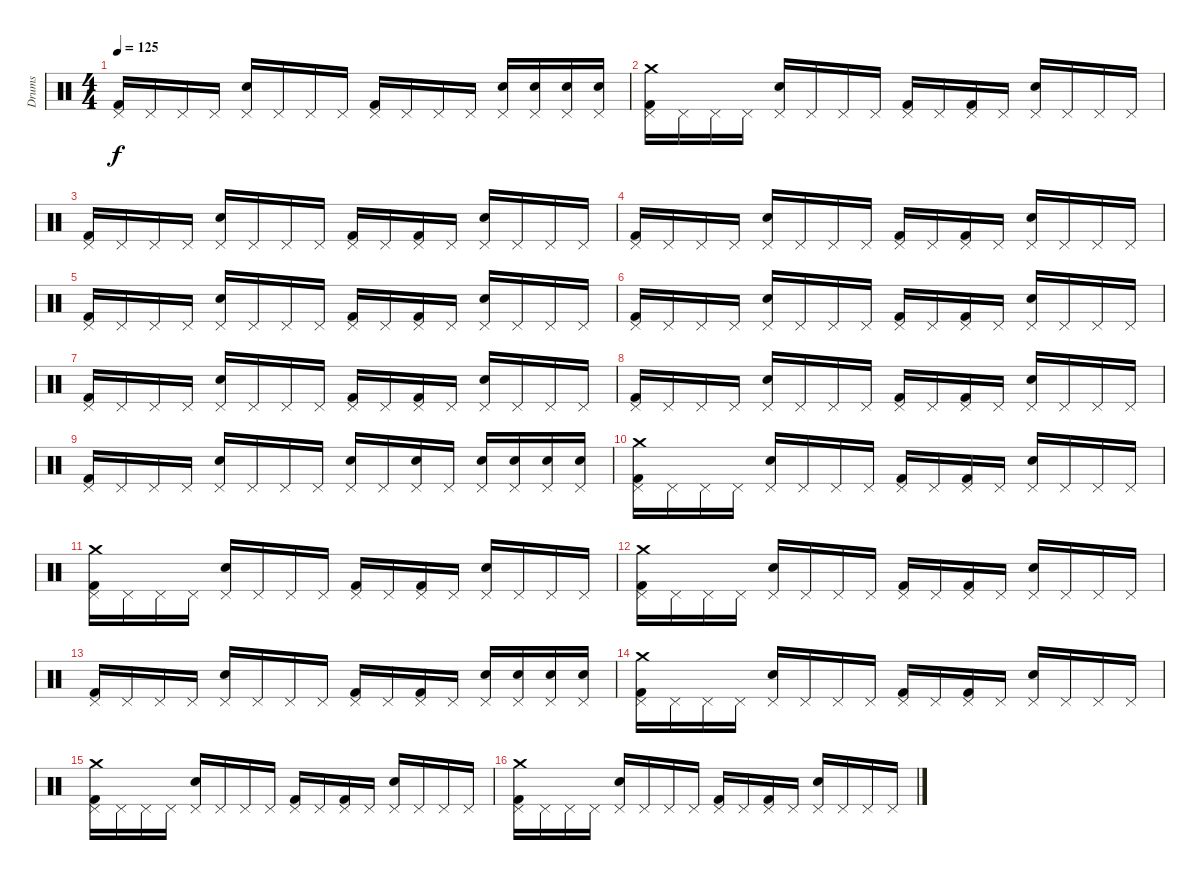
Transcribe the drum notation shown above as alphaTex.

\track ("Drums" "Drums") {instrument percussion}
\staff {score}
\articulation defaults
\ts (4 4)
\tempo 125
\clef neutral
\ks c
("Pedal Hi-Hat (hit)" "Kick (hit) 2").16{dy f} "Pedal Hi-Hat (hit)".16 "Pedal Hi-Hat (hit)".16 "Pedal Hi-Hat (hit)".16 ("Pedal Hi-Hat (hit)" "Snare (hit) 2").16 "Pedal Hi-Hat (hit)".16 "Pedal Hi-Hat (hit)".16 "Pedal Hi-Hat (hit)".16 ("Kick (hit) 2" "Pedal Hi-Hat (hit)").16 "Pedal Hi-Hat (hit)".16 "Pedal Hi-Hat (hit)".16 "Pedal Hi-Hat (hit)".16 ("Pedal Hi-Hat (hit)" "Snare (hit) 2").16 ("Pedal Hi-Hat (hit)" "Snare (hit) 2").16 ("Pedal Hi-Hat (hit)" "Snare (hit) 2").16 ("Pedal Hi-Hat (hit)" "Snare (hit) 2").16 |
("Kick (hit) 2" "Crash medium (hit)" "Pedal Hi-Hat (hit)").16 "Pedal Hi-Hat (hit)".16 "Pedal Hi-Hat (hit)".16 "Pedal Hi-Hat (hit)".16 ("Snare (hit) 2" "Pedal Hi-Hat (hit)").16 "Pedal Hi-Hat (hit)".16 "Pedal Hi-Hat (hit)".16 "Pedal Hi-Hat (hit)".16 ("Kick (hit) 2" "Pedal Hi-Hat (hit)").16 "Pedal Hi-Hat (hit)".16 ("Kick (hit) 2" "Pedal Hi-Hat (hit)").16 "Pedal Hi-Hat (hit)".16 ("Snare (hit) 2" "Pedal Hi-Hat (hit)").16 "Pedal Hi-Hat (hit)".16 "Pedal Hi-Hat (hit)".16 "Pedal Hi-Hat (hit)".16 |
("Pedal Hi-Hat (hit)" "Kick (hit) 2").16 "Pedal Hi-Hat (hit)".16 "Pedal Hi-Hat (hit)".16 "Pedal Hi-Hat (hit)".16 ("Pedal Hi-Hat (hit)" "Snare (hit) 2").16 "Pedal Hi-Hat (hit)".16 "Pedal Hi-Hat (hit)".16 "Pedal Hi-Hat (hit)".16 ("Pedal Hi-Hat (hit)" "Kick (hit) 2").16 "Pedal Hi-Hat (hit)".16 ("Pedal Hi-Hat (hit)" "Kick (hit) 2").16 "Pedal Hi-Hat (hit)".16 ("Pedal Hi-Hat (hit)" "Snare (hit) 2").16 "Pedal Hi-Hat (hit)".16 "Pedal Hi-Hat (hit)".16 "Pedal Hi-Hat (hit)".16 |
("Kick (hit) 2" "Pedal Hi-Hat (hit)").16 "Pedal Hi-Hat (hit)".16 "Pedal Hi-Hat (hit)".16 "Pedal Hi-Hat (hit)".16 ("Snare (hit) 2" "Pedal Hi-Hat (hit)").16 "Pedal Hi-Hat (hit)".16 "Pedal Hi-Hat (hit)".16 "Pedal Hi-Hat (hit)".16 ("Kick (hit) 2" "Pedal Hi-Hat (hit)").16 "Pedal Hi-Hat (hit)".16 ("Kick (hit) 2" "Pedal Hi-Hat (hit)").16 "Pedal Hi-Hat (hit)".16 ("Snare (hit) 2" "Pedal Hi-Hat (hit)").16 "Pedal Hi-Hat (hit)".16 "Pedal Hi-Hat (hit)".16 "Pedal Hi-Hat (hit)".16 |
("Pedal Hi-Hat (hit)" "Kick (hit) 2").16 "Pedal Hi-Hat (hit)".16 "Pedal Hi-Hat (hit)".16 "Pedal Hi-Hat (hit)".16 ("Pedal Hi-Hat (hit)" "Snare (hit) 2").16 "Pedal Hi-Hat (hit)".16 "Pedal Hi-Hat (hit)".16 "Pedal Hi-Hat (hit)".16 ("Pedal Hi-Hat (hit)" "Kick (hit) 2").16 "Pedal Hi-Hat (hit)".16 ("Pedal Hi-Hat (hit)" "Kick (hit) 2").16 "Pedal Hi-Hat (hit)".16 ("Snare (hit) 2" "Pedal Hi-Hat (hit)").16 "Pedal Hi-Hat (hit)".16 "Pedal Hi-Hat (hit)".16 "Pedal Hi-Hat (hit)".16 |
("Pedal Hi-Hat (hit)" "Kick (hit) 2").16 "Pedal Hi-Hat (hit)".16 "Pedal Hi-Hat (hit)".16 "Pedal Hi-Hat (hit)".16 ("Pedal Hi-Hat (hit)" "Snare (hit) 2").16 "Pedal Hi-Hat (hit)".16 "Pedal Hi-Hat (hit)".16 "Pedal Hi-Hat (hit)".16 ("Pedal Hi-Hat (hit)" "Kick (hit) 2").16 "Pedal Hi-Hat (hit)".16 ("Pedal Hi-Hat (hit)" "Kick (hit) 2").16 "Pedal Hi-Hat (hit)".16 ("Pedal Hi-Hat (hit)" "Snare (hit) 2").16 "Pedal Hi-Hat (hit)".16 "Pedal Hi-Hat (hit)".16 "Pedal Hi-Hat (hit)".16 |
("Kick (hit) 2" "Pedal Hi-Hat (hit)").16 "Pedal Hi-Hat (hit)".16 "Pedal Hi-Hat (hit)".16 "Pedal Hi-Hat (hit)".16 ("Snare (hit) 2" "Pedal Hi-Hat (hit)").16 "Pedal Hi-Hat (hit)".16 "Pedal Hi-Hat (hit)".16 "Pedal Hi-Hat (hit)".16 ("Kick (hit) 2" "Pedal Hi-Hat (hit)").16 "Pedal Hi-Hat (hit)".16 ("Kick (hit) 2" "Pedal Hi-Hat (hit)").16 "Pedal Hi-Hat (hit)".16 ("Snare (hit) 2" "Pedal Hi-Hat (hit)").16 "Pedal Hi-Hat (hit)".16 "Pedal Hi-Hat (hit)".16 "Pedal Hi-Hat (hit)".16 |
("Pedal Hi-Hat (hit)" "Kick (hit) 2").16 "Pedal Hi-Hat (hit)".16 "Pedal Hi-Hat (hit)".16 "Pedal Hi-Hat (hit)".16 ("Pedal Hi-Hat (hit)" "Snare (hit) 2").16 "Pedal Hi-Hat (hit)".16 "Pedal Hi-Hat (hit)".16 "Pedal Hi-Hat (hit)".16 ("Pedal Hi-Hat (hit)" "Kick (hit) 2").16 "Pedal Hi-Hat (hit)".16 ("Pedal Hi-Hat (hit)" "Kick (hit) 2").16 "Pedal Hi-Hat (hit)".16 ("Pedal Hi-Hat (hit)" "Snare (hit) 2").16 "Pedal Hi-Hat (hit)".16 "Pedal Hi-Hat (hit)".16 "Pedal Hi-Hat (hit)".16 |
("Pedal Hi-Hat (hit)" "Kick (hit) 2").16 "Pedal Hi-Hat (hit)".16 "Pedal Hi-Hat (hit)".16 "Pedal Hi-Hat (hit)".16 ("Pedal Hi-Hat (hit)" "Snare (hit) 2").16 "Pedal Hi-Hat (hit)".16 "Pedal Hi-Hat (hit)".16 "Pedal Hi-Hat (hit)".16 ("Pedal Hi-Hat (hit)" "Snare (hit) 2").16 "Pedal Hi-Hat (hit)".16 ("Pedal Hi-Hat (hit)" "Snare (hit) 2").16 "Pedal Hi-Hat (hit)".16 ("Pedal Hi-Hat (hit)" "Snare (hit) 2").16 ("Pedal Hi-Hat (hit)" "Snare (hit) 2").16 ("Pedal Hi-Hat (hit)" "Snare (hit) 2").16 ("Pedal Hi-Hat (hit)" "Snare (hit) 2").16 |
("Crash medium (hit)" "Pedal Hi-Hat (hit)" "Kick (hit) 2").16 "Pedal Hi-Hat (hit)".16 "Pedal Hi-Hat (hit)".16 "Pedal Hi-Hat (hit)".16 ("Pedal Hi-Hat (hit)" "Snare (hit) 2").16 "Pedal Hi-Hat (hit)".16 "Pedal Hi-Hat (hit)".16 "Pedal Hi-Hat (hit)".16 ("Pedal Hi-Hat (hit)" "Kick (hit) 2").16 "Pedal Hi-Hat (hit)".16 ("Pedal Hi-Hat (hit)" "Kick (hit) 2").16 "Pedal Hi-Hat (hit)".16 ("Pedal Hi-Hat (hit)" "Snare (hit) 2").16 "Pedal Hi-Hat (hit)".16 "Pedal Hi-Hat (hit)".16 "Pedal Hi-Hat (hit)".16 |
("Crash medium (hit)" "Kick (hit) 2" "Pedal Hi-Hat (hit)").16 "Pedal Hi-Hat (hit)".16 "Pedal Hi-Hat (hit)".16 "Pedal Hi-Hat (hit)".16 ("Snare (hit) 2" "Pedal Hi-Hat (hit)").16 "Pedal Hi-Hat (hit)".16 "Pedal Hi-Hat (hit)".16 "Pedal Hi-Hat (hit)".16 ("Kick (hit) 2" "Pedal Hi-Hat (hit)").16 "Pedal Hi-Hat (hit)".16 ("Kick (hit) 2" "Pedal Hi-Hat (hit)").16 "Pedal Hi-Hat (hit)".16 ("Snare (hit) 2" "Pedal Hi-Hat (hit)").16 "Pedal Hi-Hat (hit)".16 "Pedal Hi-Hat (hit)".16 "Pedal Hi-Hat (hit)".16 |
("Kick (hit) 2" "Crash medium (hit)" "Pedal Hi-Hat (hit)").16 "Pedal Hi-Hat (hit)".16 "Pedal Hi-Hat (hit)".16 "Pedal Hi-Hat (hit)".16 ("Snare (hit) 2" "Pedal Hi-Hat (hit)").16 "Pedal Hi-Hat (hit)".16 "Pedal Hi-Hat (hit)".16 "Pedal Hi-Hat (hit)".16 ("Kick (hit) 2" "Pedal Hi-Hat (hit)").16 "Pedal Hi-Hat (hit)".16 ("Kick (hit) 2" "Pedal Hi-Hat (hit)").16 "Pedal Hi-Hat (hit)".16 ("Snare (hit) 2" "Pedal Hi-Hat (hit)").16 "Pedal Hi-Hat (hit)".16 "Pedal Hi-Hat (hit)".16 "Pedal Hi-Hat (hit)".16 |
("Pedal Hi-Hat (hit)" "Kick (hit) 2").16 "Pedal Hi-Hat (hit)".16 "Pedal Hi-Hat (hit)".16 "Pedal Hi-Hat (hit)".16 ("Pedal Hi-Hat (hit)" "Snare (hit) 2").16 "Pedal Hi-Hat (hit)".16 "Pedal Hi-Hat (hit)".16 "Pedal Hi-Hat (hit)".16 ("Pedal Hi-Hat (hit)" "Kick (hit) 2").16 "Pedal Hi-Hat (hit)".16 ("Pedal Hi-Hat (hit)" "Kick (hit) 2").16 "Pedal Hi-Hat (hit)".16 ("Snare (hit) 2" "Pedal Hi-Hat (hit)").16 ("Snare (hit) 2" "Pedal Hi-Hat (hit)").16 ("Snare (hit) 2" "Pedal Hi-Hat (hit)").16 ("Snare (hit) 2" "Pedal Hi-Hat (hit)").16 |
("Crash medium (hit)" "Pedal Hi-Hat (hit)" "Kick (hit) 2").16 "Pedal Hi-Hat (hit)".16 "Pedal Hi-Hat (hit)".16 "Pedal Hi-Hat (hit)".16 ("Pedal Hi-Hat (hit)" "Snare (hit) 2").16 "Pedal Hi-Hat (hit)".16 "Pedal Hi-Hat (hit)".16 "Pedal Hi-Hat (hit)".16 ("Pedal Hi-Hat (hit)" "Kick (hit) 2").16 "Pedal Hi-Hat (hit)".16 ("Pedal Hi-Hat (hit)" "Kick (hit) 2").16 "Pedal Hi-Hat (hit)".16 ("Pedal Hi-Hat (hit)" "Snare (hit) 2").16 "Pedal Hi-Hat (hit)".16 "Pedal Hi-Hat (hit)".16 "Pedal Hi-Hat (hit)".16 |
("Kick (hit) 2" "Crash medium (hit)" "Pedal Hi-Hat (hit)").16 "Pedal Hi-Hat (hit)".16 "Pedal Hi-Hat (hit)".16 "Pedal Hi-Hat (hit)".16 ("Snare (hit) 2" "Pedal Hi-Hat (hit)").16 "Pedal Hi-Hat (hit)".16 "Pedal Hi-Hat (hit)".16 "Pedal Hi-Hat (hit)".16 ("Kick (hit) 2" "Pedal Hi-Hat (hit)").16 "Pedal Hi-Hat (hit)".16 ("Kick (hit) 2" "Pedal Hi-Hat (hit)").16 "Pedal Hi-Hat (hit)".16 ("Snare (hit) 2" "Pedal Hi-Hat (hit)").16 "Pedal Hi-Hat (hit)".16 "Pedal Hi-Hat (hit)".16 "Pedal Hi-Hat (hit)".16 |
("Crash medium (hit)" "Kick (hit) 2" "Pedal Hi-Hat (hit)").16 "Pedal Hi-Hat (hit)".16 "Pedal Hi-Hat (hit)".16 "Pedal Hi-Hat (hit)".16 ("Snare (hit) 2" "Pedal Hi-Hat (hit)").16 "Pedal Hi-Hat (hit)".16 "Pedal Hi-Hat (hit)".16 "Pedal Hi-Hat (hit)".16 ("Kick (hit) 2" "Pedal Hi-Hat (hit)").16 "Pedal Hi-Hat (hit)".16 ("Kick (hit) 2" "Pedal Hi-Hat (hit)").16 "Pedal Hi-Hat (hit)".16 ("Snare (hit) 2" "Pedal Hi-Hat (hit)").16 "Pedal Hi-Hat (hit)".16 "Pedal Hi-Hat (hit)".16 "Pedal Hi-Hat (hit)".16
